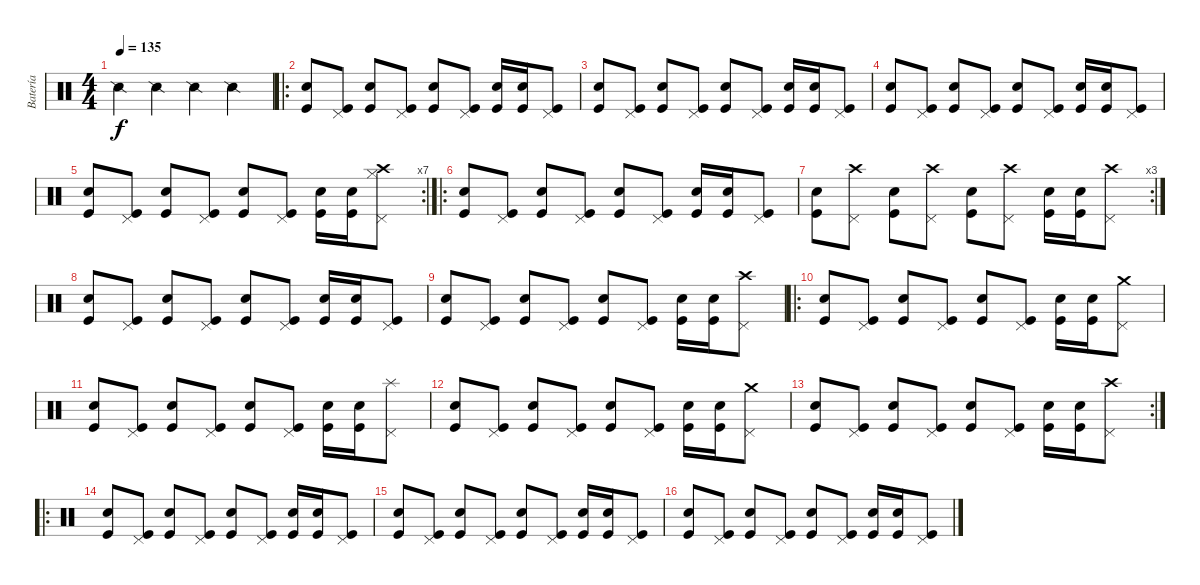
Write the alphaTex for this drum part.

\track ("Batería" "Batería") {instrument percussion}
\staff {score}
\articulation defaults
\ts (4 4)
\tempo 135
\clef neutral
\ks c "Snare (side stick) 2".4{dy f} "Snare (side stick) 2".4 "Snare (side stick) 2".4 "Snare (side stick) 2".4
|
\ro
("Kick (hit)" "Electric Snare (hit)").8 ("Kick (hit)" "Pedal Hi-Hat (hit)").8 ("Kick (hit)" "Electric Snare (hit)").8 ("Kick (hit)" "Pedal Hi-Hat (hit)").8 ("Kick (hit)" "Electric Snare (hit)").8 ("Kick (hit)" "Pedal Hi-Hat (hit)").8 ("Kick (hit)" "Electric Snare (hit)").16 ("Kick (hit)" "Electric Snare (hit)").16 ("Kick (hit)" "Pedal Hi-Hat (hit)").8 |
("Kick (hit)" "Electric Snare (hit)").8 ("Kick (hit)" "Pedal Hi-Hat (hit)").8 ("Kick (hit)" "Electric Snare (hit)").8 ("Kick (hit)" "Pedal Hi-Hat (hit)").8 ("Kick (hit)" "Electric Snare (hit)").8 ("Kick (hit)" "Pedal Hi-Hat (hit)").8 ("Kick (hit)" "Electric Snare (hit)").16 ("Kick (hit)" "Electric Snare (hit)").16 ("Kick (hit)" "Pedal Hi-Hat (hit)").8 |
("Kick (hit)" "Electric Snare (hit)").8 ("Kick (hit)" "Pedal Hi-Hat (hit)").8 ("Kick (hit)" "Electric Snare (hit)").8 ("Kick (hit)" "Pedal Hi-Hat (hit)").8 ("Kick (hit)" "Electric Snare (hit)").8 ("Kick (hit)" "Pedal Hi-Hat (hit)").8 ("Kick (hit)" "Electric Snare (hit)").16 ("Kick (hit)" "Electric Snare (hit)").16 ("Kick (hit)" "Pedal Hi-Hat (hit)").8 |
\rc 7
("Kick (hit)" "Electric Snare (hit)").8 ("Kick (hit)" "Pedal Hi-Hat (hit)").8 ("Kick (hit)" "Electric Snare (hit)").8 ("Kick (hit)" "Pedal Hi-Hat (hit)").8 ("Kick (hit)" "Electric Snare (hit)").8 ("Kick (hit)" "Pedal Hi-Hat (hit)").8 ("Kick (hit)" "Electric Snare (hit)").16 ("Kick (hit)" "Electric Snare (hit)").16 ("Crash high (hit)" "Hi-Hat (closed)" "Pedal Hi-Hat (hit)").8 |
\ro
("Kick (hit)" "Electric Snare (hit)").8 ("Kick (hit)" "Pedal Hi-Hat (hit)").8 ("Kick (hit)" "Electric Snare (hit)").8 ("Kick (hit)" "Pedal Hi-Hat (hit)").8 ("Kick (hit)" "Electric Snare (hit)").8 ("Kick (hit)" "Pedal Hi-Hat (hit)").8 ("Kick (hit)" "Electric Snare (hit)").16 ("Kick (hit)" "Electric Snare (hit)").16 ("Kick (hit)" "Pedal Hi-Hat (hit)").8 |
\rc 3
("Kick (hit)" "Electric Snare (hit)").8 ("Crash high (hit)" "Pedal Hi-Hat (hit)").8 ("Kick (hit)" "Electric Snare (hit)").8 ("Crash high (hit)" "Pedal Hi-Hat (hit)").8 ("Kick (hit)" "Electric Snare (hit)").8 ("Crash high (hit)" "Pedal Hi-Hat (hit)").8 ("Kick (hit)" "Electric Snare (hit)").16 ("Kick (hit)" "Electric Snare (hit)").16 ("Crash high (hit)" "Pedal Hi-Hat (hit)").8 |
("Kick (hit)" "Electric Snare (hit)").8 ("Kick (hit)" "Pedal Hi-Hat (hit)").8 ("Kick (hit)" "Electric Snare (hit)").8 ("Kick (hit)" "Pedal Hi-Hat (hit)").8 ("Kick (hit)" "Electric Snare (hit)").8 ("Kick (hit)" "Pedal Hi-Hat (hit)").8 ("Kick (hit)" "Electric Snare (hit)").16 ("Kick (hit)" "Electric Snare (hit)").16 ("Kick (hit)" "Pedal Hi-Hat (hit)").8 |
("Kick (hit)" "Electric Snare (hit)").8 ("Kick (hit)" "Pedal Hi-Hat (hit)").8 ("Kick (hit)" "Electric Snare (hit)").8 ("Kick (hit)" "Pedal Hi-Hat (hit)").8 ("Kick (hit)" "Electric Snare (hit)").8 ("Kick (hit)" "Pedal Hi-Hat (hit)").8 ("Kick (hit)" "Electric Snare (hit)").16 ("Kick (hit)" "Electric Snare (hit)").16 ("Crash high (hit)" "Pedal Hi-Hat (hit)").8 |
\ro
("Kick (hit)" "Electric Snare (hit)").8 ("Kick (hit)" "Pedal Hi-Hat (hit)").8 ("Kick (hit)" "Electric Snare (hit)").8 ("Kick (hit)" "Pedal Hi-Hat (hit)").8 ("Kick (hit)" "Electric Snare (hit)").8 ("Kick (hit)" "Pedal Hi-Hat (hit)").8 ("Kick (hit)" "Electric Snare (hit)").16 ("Kick (hit)" "Electric Snare (hit)").16 ("Crash medium (hit)" "Pedal Hi-Hat (hit)").8 |
("Kick (hit)" "Electric Snare (hit)").8 ("Kick (hit)" "Pedal Hi-Hat (hit)").8 ("Kick (hit)" "Electric Snare (hit)").8 ("Kick (hit)" "Pedal Hi-Hat (hit)").8 ("Kick (hit)" "Electric Snare (hit)").8 ("Kick (hit)" "Pedal Hi-Hat (hit)").8 ("Kick (hit)" "Electric Snare (hit)").16 ("Kick (hit)" "Electric Snare (hit)").16 ("Splash (hit)" "Pedal Hi-Hat (hit)").8 |
("Kick (hit)" "Electric Snare (hit)").8 ("Kick (hit)" "Pedal Hi-Hat (hit)").8 ("Kick (hit)" "Electric Snare (hit)").8 ("Kick (hit)" "Pedal Hi-Hat (hit)").8 ("Kick (hit)" "Electric Snare (hit)").8 ("Kick (hit)" "Pedal Hi-Hat (hit)").8 ("Kick (hit)" "Electric Snare (hit)").16 ("Kick (hit)" "Electric Snare (hit)").16 ("Crash medium (hit)" "Pedal Hi-Hat (hit)").8 |
\rc 2
("Kick (hit)" "Electric Snare (hit)").8 ("Kick (hit)" "Pedal Hi-Hat (hit)").8 ("Kick (hit)" "Electric Snare (hit)").8 ("Kick (hit)" "Pedal Hi-Hat (hit)").8 ("Kick (hit)" "Electric Snare (hit)").8 ("Kick (hit)" "Pedal Hi-Hat (hit)").8 ("Kick (hit)" "Electric Snare (hit)").16 ("Kick (hit)" "Electric Snare (hit)").16 ("Crash high (hit)" "Pedal Hi-Hat (hit)").8 |
\ro
("Kick (hit)" "Electric Snare (hit)").8 ("Kick (hit)" "Pedal Hi-Hat (hit)").8 ("Kick (hit)" "Electric Snare (hit)").8 ("Kick (hit)" "Pedal Hi-Hat (hit)").8 ("Kick (hit)" "Electric Snare (hit)").8 ("Kick (hit)" "Pedal Hi-Hat (hit)").8 ("Kick (hit)" "Electric Snare (hit)").16 ("Kick (hit)" "Electric Snare (hit)").16 ("Kick (hit)" "Pedal Hi-Hat (hit)").8 |
("Kick (hit)" "Electric Snare (hit)").8 ("Kick (hit)" "Pedal Hi-Hat (hit)").8 ("Kick (hit)" "Electric Snare (hit)").8 ("Kick (hit)" "Pedal Hi-Hat (hit)").8 ("Kick (hit)" "Electric Snare (hit)").8 ("Kick (hit)" "Pedal Hi-Hat (hit)").8 ("Kick (hit)" "Electric Snare (hit)").16 ("Kick (hit)" "Electric Snare (hit)").16 ("Kick (hit)" "Pedal Hi-Hat (hit)").8 |
("Kick (hit)" "Electric Snare (hit)").8 ("Kick (hit)" "Pedal Hi-Hat (hit)").8 ("Kick (hit)" "Electric Snare (hit)").8 ("Kick (hit)" "Pedal Hi-Hat (hit)").8 ("Kick (hit)" "Electric Snare (hit)").8 ("Kick (hit)" "Pedal Hi-Hat (hit)").8 ("Kick (hit)" "Electric Snare (hit)").16 ("Kick (hit)" "Electric Snare (hit)").16 ("Kick (hit)" "Pedal Hi-Hat (hit)").8
